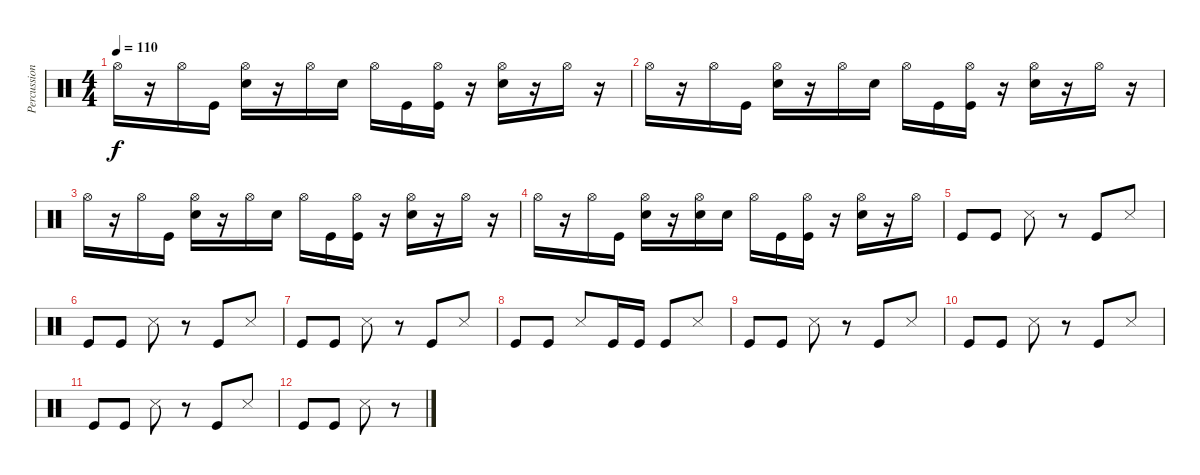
\track ("Percussion" "Percussion") {instrument percussion}
\staff {score}
\articulation defaults
\ts (4 4)
\tempo 110
\clef neutral
\ks c "Hi-Hat (open)".16{dy f}
r.16 "Hi-Hat (open)".16 "Kick (hit)".16 ("Hi-Hat (open)" "Snare (hit) 2").16 r.16 "Hi-Hat (open)".16 "Snare (hit) 2".16 "Hi-Hat (open)".16 "Kick (hit)".16 ("Hi-Hat (open)" "Kick (hit)").16 r.16 ("Hi-Hat (open)" "Snare (hit) 2").16 r.16 "Hi-Hat (open)".16 r.16 |
"Hi-Hat (open)".16 r.16 "Hi-Hat (open)".16 "Kick (hit)".16 ("Hi-Hat (open)" "Snare (hit) 2").16 r.16 "Hi-Hat (open)".16 "Snare (hit) 2".16 "Hi-Hat (open)".16 "Kick (hit)".16 ("Hi-Hat (open)" "Kick (hit)").16 r.16 ("Hi-Hat (open)" "Snare (hit) 2").16 r.16 "Hi-Hat (open)".16 r.16 |
"Hi-Hat (open)".16 r.16 "Hi-Hat (open)".16 "Kick (hit)".16 ("Hi-Hat (open)" "Snare (hit) 2").16 r.16 "Hi-Hat (open)".16 "Snare (hit) 2".16 "Hi-Hat (open)".16 "Kick (hit)".16 ("Hi-Hat (open)" "Kick (hit)").16 r.16 ("Hi-Hat (open)" "Snare (hit) 2").16 r.16 "Hi-Hat (open)".16 r.16 |
"Hi-Hat (open)".16 r.16 "Hi-Hat (open)".16 "Kick (hit)".16 ("Hi-Hat (open)" "Snare (hit) 2").16 r.16 ("Hi-Hat (open)" "Snare (hit) 2").16 "Snare (hit) 2".16 "Hi-Hat (open)".16 "Kick (hit)".16 ("Hi-Hat (open)" "Kick (hit)").16 r.16 ("Hi-Hat (open)" "Snare (hit) 2").16 r.16 "Hi-Hat (open)".16 |
"Kick (hit)".8 "Kick (hit)".8 "Snare (side stick) 3".8 r.8 "Kick (hit)".8 "Snare (side stick) 3".8 |
"Kick (hit)".8 "Kick (hit)".8 "Snare (side stick) 3".8 r.8 "Kick (hit)".8 "Snare (side stick) 3".8 |
"Kick (hit)".8 "Kick (hit)".8 "Snare (side stick) 3".8 r.8 "Kick (hit)".8 "Snare (side stick) 3".8 |
"Kick (hit)".8 "Kick (hit)".8 "Snare (side stick) 3".8 "Kick (hit)".16 "Kick (hit)".16 "Kick (hit)".8 "Snare (side stick) 3".8 |
"Kick (hit)".8 "Kick (hit)".8 "Snare (side stick) 3".8 r.8 "Kick (hit)".8 "Snare (side stick) 3".8 |
"Kick (hit)".8 "Kick (hit)".8 "Snare (side stick) 3".8 r.8 "Kick (hit)".8 "Snare (side stick) 3".8 |
"Kick (hit)".8 "Kick (hit)".8 "Snare (side stick) 3".8 r.8 "Kick (hit)".8 "Snare (side stick) 3".8 |
"Kick (hit)".8 "Kick (hit)".8 "Snare (side stick) 3".8 r.8
